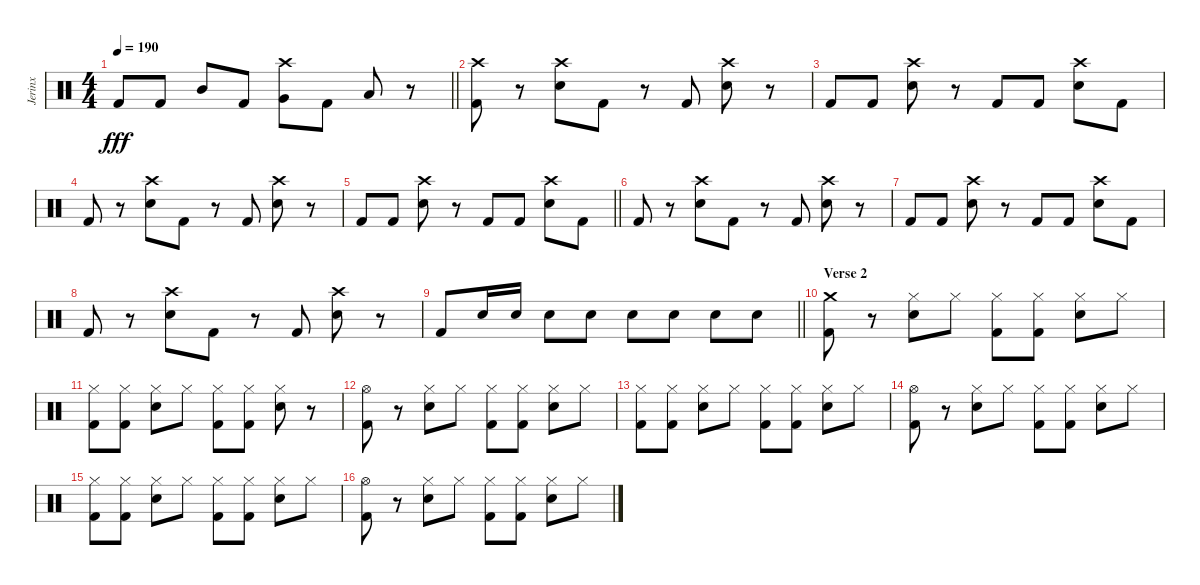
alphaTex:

\track ("Jerinx" "Jerinx") {instrument percussion}
\staff {score}
\articulation defaults
\ts (4 4)
\tempo 190
\clef neutral
\barLineRight lightlight
\ks c "Kick (hit) 2".8{dy fff} "Kick (hit) 2".8 "Mid Tom (hit)".8 "Kick (hit) 2".8
("Very Low Tom (hit)" "Crash high (hit)").8 "Kick (hit) 2".8 "Low Tom (hit)".8 r.8 |
("Kick (hit) 2" "Crash high (hit)").8 r.8 ("Electric Snare (hit)" "Crash high (hit)").8 "Kick (hit) 2".8 r.8 "Kick (hit) 2".8 ("Electric Snare (hit)" "Crash high (hit)").8 r.8 |
"Kick (hit) 2".8 "Kick (hit) 2".8 ("Electric Snare (hit)" "Crash high (hit)").8 r.8 "Kick (hit) 2".8 "Kick (hit) 2".8 ("Electric Snare (hit)" "Crash high (hit)").8 "Kick (hit) 2".8 |
"Kick (hit) 2".8 r.8 ("Electric Snare (hit)" "Crash high (hit)").8 "Kick (hit) 2".8 r.8 "Kick (hit) 2".8 ("Electric Snare (hit)" "Crash high (hit)").8 r.8 |
\barLineRight lightlight "Kick (hit) 2".8 "Kick (hit) 2".8
("Electric Snare (hit)" "Crash high (hit)").8 r.8 "Kick (hit) 2".8 "Kick (hit) 2".8 ("Electric Snare (hit)" "Crash high (hit)").8 "Kick (hit) 2".8 |
"Kick (hit) 2".8 r.8 ("Electric Snare (hit)" "Crash high (hit)").8 "Kick (hit) 2".8 r.8 "Kick (hit) 2".8 ("Electric Snare (hit)" "Crash high (hit)").8 r.8 |
"Kick (hit) 2".8 "Kick (hit) 2".8 ("Electric Snare (hit)" "Crash high (hit)").8 r.8 "Kick (hit) 2".8 "Kick (hit) 2".8 ("Electric Snare (hit)" "Crash high (hit)").8 "Kick (hit) 2".8 |
"Kick (hit) 2".8 r.8 ("Electric Snare (hit)" "Crash high (hit)").8 "Kick (hit) 2".8 r.8 "Kick (hit) 2".8 ("Electric Snare (hit)" "Crash high (hit)").8 r.8 |
\barLineRight lightlight "Kick (hit) 2".8 "Electric Snare (hit)".16 "Electric Snare (hit)".16 "Electric Snare (hit)".8 "Electric Snare (hit)".8 "Electric Snare (hit)".8 "Electric Snare (hit)".8 "Electric Snare (hit)".8 "Electric Snare (hit)".8
|
\section ("" "Verse 2")
("Kick (hit) 2" "Crash medium (hit)").8 r.8 ("Hi-Hat (closed)" "Electric Snare (hit)").8 "Hi-Hat (closed)".8 ("Hi-Hat (closed)" "Kick (hit) 2").8 ("Hi-Hat (closed)" "Kick (hit) 2").8 ("Hi-Hat (closed)" "Electric Snare (hit)").8 "Hi-Hat (closed)".8 |
("Hi-Hat (closed)" "Kick (hit) 2").8 ("Hi-Hat (closed)" "Kick (hit) 2").8 ("Hi-Hat (closed)" "Electric Snare (hit)").8 "Hi-Hat (closed)".8 ("Hi-Hat (closed)" "Kick (hit) 2").8 ("Hi-Hat (closed)" "Kick (hit) 2").8 ("Hi-Hat (closed)" "Electric Snare (hit)").8 r.8 |
("Hi-Hat (open)" "Kick (hit) 2").8 r.8 ("Hi-Hat (closed)" "Electric Snare (hit)").8 "Hi-Hat (closed)".8 ("Hi-Hat (closed)" "Kick (hit) 2").8 ("Hi-Hat (closed)" "Kick (hit) 2").8 ("Hi-Hat (closed)" "Electric Snare (hit)").8 "Hi-Hat (closed)".8 |
("Hi-Hat (closed)" "Kick (hit) 2").8 ("Hi-Hat (closed)" "Kick (hit) 2").8 ("Hi-Hat (closed)" "Electric Snare (hit)").8 "Hi-Hat (closed)".8 ("Hi-Hat (closed)" "Kick (hit) 2").8 ("Hi-Hat (closed)" "Kick (hit) 2").8 ("Hi-Hat (closed)" "Electric Snare (hit)").8 "Hi-Hat (closed)".8 |
("Hi-Hat (open)" "Kick (hit) 2").8 r.8 ("Hi-Hat (closed)" "Electric Snare (hit)").8 "Hi-Hat (closed)".8 ("Hi-Hat (closed)" "Kick (hit) 2").8 ("Hi-Hat (closed)" "Kick (hit) 2").8 ("Hi-Hat (closed)" "Electric Snare (hit)").8 "Hi-Hat (closed)".8 |
("Hi-Hat (closed)" "Kick (hit) 2").8 ("Hi-Hat (closed)" "Kick (hit) 2").8 ("Hi-Hat (closed)" "Electric Snare (hit)").8 "Hi-Hat (closed)".8 ("Hi-Hat (closed)" "Kick (hit) 2").8 ("Hi-Hat (closed)" "Kick (hit) 2").8 ("Hi-Hat (closed)" "Electric Snare (hit)").8 "Hi-Hat (closed)".8 |
("Hi-Hat (open)" "Kick (hit) 2").8 r.8 ("Hi-Hat (closed)" "Electric Snare (hit)").8 "Hi-Hat (closed)".8 ("Hi-Hat (closed)" "Kick (hit) 2").8 ("Hi-Hat (closed)" "Kick (hit) 2").8 ("Hi-Hat (closed)" "Electric Snare (hit)").8 "Hi-Hat (closed)".8
